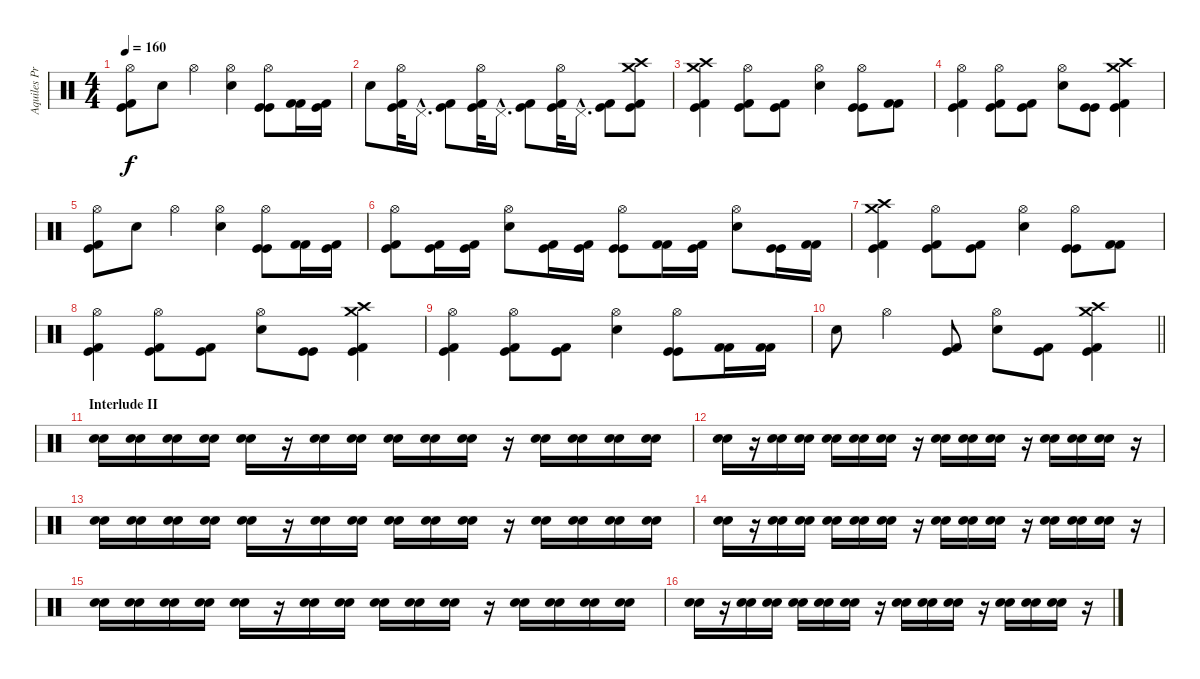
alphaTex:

\track ("Aquiles Priester" "Aquiles Pr") {instrument percussion}
\staff {score}
\articulation defaults
\ts (4 4)
\tempo 160
\clef neutral
\ks c
("Hi-Hat (open)" "Kick (hit) 2" "Kick (hit)").8{dy f} "Electric Snare (hit)".8 "Hi-Hat (open)".4 ("Hi-Hat (open)" "Electric Snare (hit)").4 ("Hi-Hat (open)" "Kick (hit)" "Kick (hit)").8 ("Kick (hit) 2" "Kick (hit) 2").16 ("Kick (hit)" "Kick (hit) 2").16 |
"Electric Snare (hit)".8 ("Hi-Hat (open)" "Kick (hit)" "Kick (hit) 2").32 "Pedal Hi-Hat (hit)"{hac}.16{d} ("Kick (hit) 2" "Kick (hit)").8 ("Hi-Hat (open)" "Kick (hit)" "Kick (hit) 2").32 "Pedal Hi-Hat (hit)"{hac}.16{d} ("Kick (hit) 2" "Kick (hit)").8 ("Hi-Hat (open)" "Kick (hit)" "Kick (hit) 2").32 "Pedal Hi-Hat (hit)"{hac}.16{d} ("Kick (hit) 2" "Kick (hit)").8 ("Crash medium (hit)" "Crash high (hit)" "Kick (hit)" "Kick (hit) 2").8 |
("Crash medium (hit)" "Crash high (hit)" "Kick (hit) 2" "Kick (hit)").4 ("Hi-Hat (open)" "Kick (hit) 2" "Kick (hit)").8 ("Kick (hit) 2" "Kick (hit)").8 ("Hi-Hat (open)" "Electric Snare (hit)").4 ("Hi-Hat (open)" "Kick (hit)" "Kick (hit)").8 ("Kick (hit) 2" "Kick (hit) 2").8 |
("Hi-Hat (open)" "Kick (hit) 2" "Kick (hit)").4 ("Hi-Hat (open)" "Kick (hit) 2" "Kick (hit)").8 ("Kick (hit) 2" "Kick (hit)").8 ("Hi-Hat (open)" "Electric Snare (hit)").8 ("Kick (hit)" "Kick (hit)").8 ("Crash medium (hit)" "Crash high (hit)" "Kick (hit) 2" "Kick (hit)").4 |
("Hi-Hat (open)" "Kick (hit) 2" "Kick (hit)").8 "Electric Snare (hit)".8 "Hi-Hat (open)".4 ("Hi-Hat (open)" "Electric Snare (hit)").4 ("Hi-Hat (open)" "Kick (hit)" "Kick (hit)").8 ("Kick (hit) 2" "Kick (hit) 2").16 ("Kick (hit) 2" "Kick (hit)").16 |
("Hi-Hat (open)" "Kick (hit) 2" "Kick (hit)").8 ("Kick (hit) 2" "Kick (hit)").16 ("Kick (hit) 2" "Kick (hit)").16 ("Hi-Hat (open)" "Electric Snare (hit)").8 ("Kick (hit) 2" "Kick (hit)").16 ("Kick (hit) 2" "Kick (hit)").16 ("Hi-Hat (open)" "Kick (hit)" "Kick (hit)").8 ("Kick (hit) 2" "Kick (hit) 2").16 ("Kick (hit)" "Kick (hit) 2").16 ("Hi-Hat (open)" "Electric Snare (hit)").8 ("Kick (hit)" "Kick (hit)").16 ("Kick (hit) 2" "Kick (hit) 2").16 |
("Crash medium (hit)" "Crash high (hit)" "Kick (hit) 2" "Kick (hit)").4 ("Hi-Hat (open)" "Kick (hit) 2" "Kick (hit)").8 ("Kick (hit) 2" "Kick (hit)").8 ("Hi-Hat (open)" "Electric Snare (hit)").4 ("Hi-Hat (open)" "Kick (hit)" "Kick (hit)").8 ("Kick (hit) 2" "Kick (hit) 2").8 |
("Hi-Hat (open)" "Kick (hit) 2" "Kick (hit)").4 ("Hi-Hat (open)" "Kick (hit) 2" "Kick (hit)").8 ("Kick (hit) 2" "Kick (hit)").8 ("Hi-Hat (open)" "Electric Snare (hit)").8 ("Kick (hit)" "Kick (hit)").8 ("Crash medium (hit)" "Crash high (hit)" "Kick (hit) 2" "Kick (hit)").4 |
("Hi-Hat (open)" "Kick (hit) 2" "Kick (hit)").4 ("Hi-Hat (open)" "Kick (hit) 2" "Kick (hit)").8 ("Kick (hit) 2" "Kick (hit)").8 ("Hi-Hat (open)" "Electric Snare (hit)").4 ("Hi-Hat (open)" "Kick (hit)" "Kick (hit)").8 ("Kick (hit) 2" "Kick (hit) 2").16 ("Kick (hit) 2" "Kick (hit) 2").16 |
\barLineRight lightlight "Electric Snare (hit)".8 "Hi-Hat (open)".4
("Kick (hit)" "Kick (hit) 2").8 ("Hi-Hat (open)" "Electric Snare (hit)").8 ("Kick (hit)" "Kick (hit) 2").8 ("Crash medium (hit)" "Crash high (hit)" "Kick (hit)" "Kick (hit) 2").4 |
\section ("" "Interlude II")
("Snare (hit) 2" "Electric Snare (hit)").16 ("Snare (hit) 2" "Electric Snare (hit)").16 ("Snare (hit) 2" "Electric Snare (hit)").16 ("Snare (hit) 2" "Electric Snare (hit)").16 ("Snare (hit) 2" "Electric Snare (hit)").16 r.16 ("Snare (hit) 2" "Electric Snare (hit)").16 ("Snare (hit) 2" "Electric Snare (hit)").16 ("Snare (hit) 2" "Electric Snare (hit)").16 ("Snare (hit) 2" "Electric Snare (hit)").16 ("Snare (hit) 2" "Electric Snare (hit)").16 r.16 ("Snare (hit) 2" "Electric Snare (hit)").16 ("Snare (hit) 2" "Electric Snare (hit)").16 ("Snare (hit) 2" "Electric Snare (hit)").16 ("Snare (hit) 2" "Electric Snare (hit)").16 |
("Snare (hit) 2" "Electric Snare (hit)").16 r.16 ("Snare (hit) 2" "Electric Snare (hit)").16 ("Snare (hit) 2" "Electric Snare (hit)").16 ("Snare (hit) 2" "Electric Snare (hit)").16 ("Snare (hit) 2" "Electric Snare (hit)").16 ("Snare (hit) 2" "Electric Snare (hit)").16 r.16 ("Snare (hit) 2" "Electric Snare (hit)").16 ("Snare (hit) 2" "Electric Snare (hit)").16 ("Snare (hit) 2" "Electric Snare (hit)").16 r.16 ("Snare (hit) 2" "Electric Snare (hit)").16 ("Snare (hit) 2" "Electric Snare (hit)").16 ("Snare (hit) 2" "Electric Snare (hit)").16 r.16 |
("Snare (hit) 2" "Electric Snare (hit)").16 ("Snare (hit) 2" "Electric Snare (hit)").16 ("Snare (hit) 2" "Electric Snare (hit)").16 ("Snare (hit) 2" "Electric Snare (hit)").16 ("Snare (hit) 2" "Electric Snare (hit)").16 r.16 ("Snare (hit) 2" "Electric Snare (hit)").16 ("Snare (hit) 2" "Electric Snare (hit)").16 ("Snare (hit) 2" "Electric Snare (hit)").16 ("Snare (hit) 2" "Electric Snare (hit)").16 ("Snare (hit) 2" "Electric Snare (hit)").16 r.16 ("Snare (hit) 2" "Electric Snare (hit)").16 ("Snare (hit) 2" "Electric Snare (hit)").16 ("Snare (hit) 2" "Electric Snare (hit)").16 ("Snare (hit) 2" "Electric Snare (hit)").16 |
("Snare (hit) 2" "Electric Snare (hit)").16 r.16 ("Snare (hit) 2" "Electric Snare (hit)").16 ("Snare (hit) 2" "Electric Snare (hit)").16 ("Snare (hit) 2" "Electric Snare (hit)").16 ("Snare (hit) 2" "Electric Snare (hit)").16 ("Snare (hit) 2" "Electric Snare (hit)").16 r.16 ("Snare (hit) 2" "Electric Snare (hit)").16 ("Snare (hit) 2" "Electric Snare (hit)").16 ("Snare (hit) 2" "Electric Snare (hit)").16 r.16 ("Snare (hit) 2" "Electric Snare (hit)").16 ("Snare (hit) 2" "Electric Snare (hit)").16 ("Snare (hit) 2" "Electric Snare (hit)").16 r.16 |
("Snare (hit) 2" "Electric Snare (hit)").16 ("Snare (hit) 2" "Electric Snare (hit)").16 ("Snare (hit) 2" "Electric Snare (hit)").16 ("Snare (hit) 2" "Electric Snare (hit)").16 ("Snare (hit) 2" "Electric Snare (hit)").16 r.16 ("Snare (hit) 2" "Electric Snare (hit)").16 ("Snare (hit) 2" "Electric Snare (hit)").16 ("Snare (hit) 2" "Electric Snare (hit)").16 ("Snare (hit) 2" "Electric Snare (hit)").16 ("Snare (hit) 2" "Electric Snare (hit)").16 r.16 ("Snare (hit) 2" "Electric Snare (hit)").16 ("Snare (hit) 2" "Electric Snare (hit)").16 ("Snare (hit) 2" "Electric Snare (hit)").16 ("Snare (hit) 2" "Electric Snare (hit)").16 |
("Snare (hit) 2" "Electric Snare (hit)").16 r.16 ("Snare (hit) 2" "Electric Snare (hit)").16 ("Snare (hit) 2" "Electric Snare (hit)").16 ("Snare (hit) 2" "Electric Snare (hit)").16 ("Snare (hit) 2" "Electric Snare (hit)").16 ("Snare (hit) 2" "Electric Snare (hit)").16 r.16 ("Snare (hit) 2" "Electric Snare (hit)").16 ("Snare (hit) 2" "Electric Snare (hit)").16 ("Snare (hit) 2" "Electric Snare (hit)").16 r.16 ("Snare (hit) 2" "Electric Snare (hit)").16 ("Snare (hit) 2" "Electric Snare (hit)").16 ("Snare (hit) 2" "Electric Snare (hit)").16 r.16
